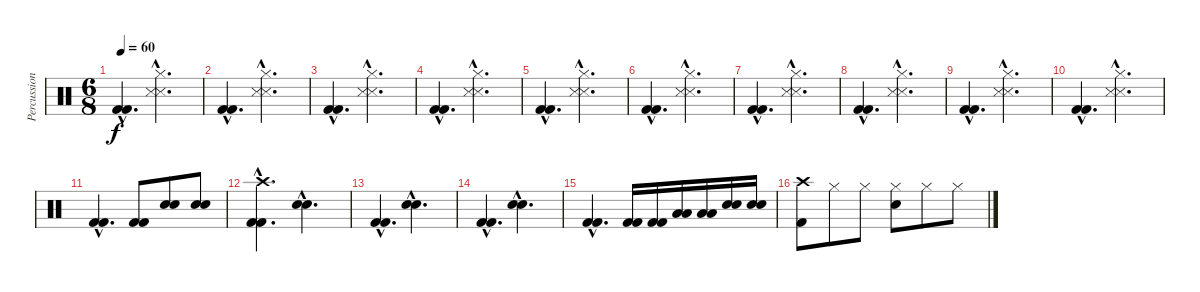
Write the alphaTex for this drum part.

\track ("Percussion" "Percussion") {instrument percussion}
\staff {score}
\articulation defaults
\ts (6 8)
\tempo 60
\clef neutral
\ks c
("Kick (hit) 2"{hac} "Kick (hit) 2"{hac}).4{d dy f} ("Hi-Hat (closed)"{hac} "Snare (side stick) 3"{hac} "Snare (side stick) 3"{hac}).4{d} |
("Kick (hit) 2"{hac} "Kick (hit) 2"{hac}).4{d} ("Hi-Hat (closed)"{hac} "Snare (side stick) 3"{hac} "Snare (side stick) 3"{hac}).4{d} |
("Kick (hit) 2"{hac} "Kick (hit) 2"{hac}).4{d} ("Hi-Hat (closed)"{hac} "Snare (side stick) 3"{hac} "Snare (side stick) 3"{hac}).4{d} |
("Kick (hit) 2"{hac} "Kick (hit) 2"{hac}).4{d} ("Hi-Hat (closed)"{hac} "Snare (side stick) 3"{hac} "Snare (side stick) 3"{hac}).4{d} |
("Kick (hit) 2"{hac} "Kick (hit) 2"{hac}).4{d} ("Hi-Hat (closed)"{hac} "Snare (side stick) 3"{hac} "Snare (side stick) 3"{hac}).4{d} |
("Kick (hit) 2"{hac} "Kick (hit) 2"{hac}).4{d} ("Hi-Hat (closed)"{hac} "Snare (side stick) 3"{hac} "Snare (side stick) 3"{hac}).4{d} |
("Kick (hit) 2"{hac} "Kick (hit) 2"{hac}).4{d} ("Hi-Hat (closed)"{hac} "Snare (side stick) 3"{hac} "Snare (side stick) 3"{hac}).4{d} |
("Kick (hit) 2"{hac} "Kick (hit) 2"{hac}).4{d} ("Hi-Hat (closed)"{hac} "Snare (side stick) 3"{hac} "Snare (side stick) 3"{hac}).4{d} |
("Kick (hit) 2"{hac} "Kick (hit) 2"{hac}).4{d} ("Hi-Hat (closed)"{hac} "Snare (side stick) 3"{hac} "Snare (side stick) 3"{hac}).4{d} |
("Kick (hit) 2"{hac} "Kick (hit) 2"{hac}).4{d} ("Hi-Hat (closed)"{hac} "Snare (side stick) 3"{hac} "Snare (side stick) 3"{hac}).4{d} |
("Kick (hit) 2"{hac} "Kick (hit) 2"{hac}).4{d} ("Kick (hit) 2" "Kick (hit) 2").8 ("Electric Snare (hit)" "Electric Snare (hit)").8 ("Electric Snare (hit)" "Electric Snare (hit)").8 |
("Crash high (hit)"{hac} "Kick (hit) 2"{hac} "Kick (hit) 2"{hac}).4{d} ("Electric Snare (hit)"{hac} "Electric Snare (hit)"{hac}).4{d} |
("Kick (hit) 2"{hac} "Kick (hit) 2"{hac}).4{d} ("Electric Snare (hit)"{hac} "Electric Snare (hit)"{hac}).4{d} |
("Kick (hit) 2"{hac} "Kick (hit) 2"{hac}).4{d} ("Electric Snare (hit)"{hac} "Electric Snare (hit)"{hac}).4{d} |
("Kick (hit) 2"{hac} "Kick (hit) 2"{hac}).4{d} ("Kick (hit) 2" "Kick (hit) 2").16 ("Kick (hit) 2" "Kick (hit) 2").16 ("Low Tom (hit)" "Low Tom (hit)").16 ("Low Tom (hit)" "Low Tom (hit)").16 ("Electric Snare (hit)" "Electric Snare (hit)").16 ("Electric Snare (hit)" "Electric Snare (hit)").16 |
("Crash high (hit)" "Kick (hit) 2").8 "Hi-Hat (closed)".8 "Hi-Hat (closed)".8 ("Hi-Hat (closed)" "Electric Snare (hit)").8 "Hi-Hat (closed)".8 "Hi-Hat (closed)".8
